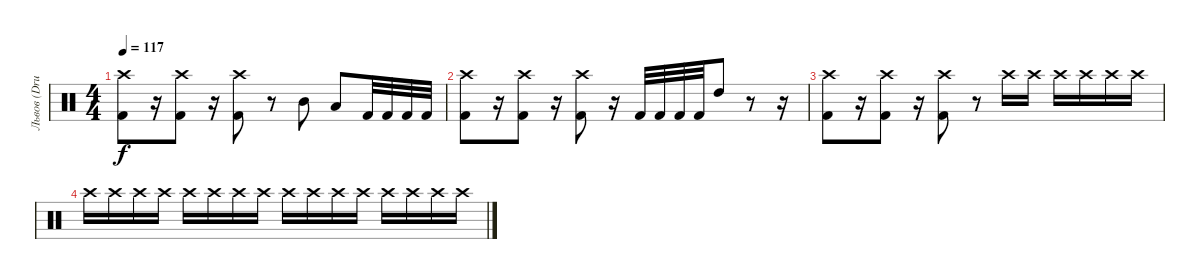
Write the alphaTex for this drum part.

\track ("Львов (Drums)" "Львов (Dru") {instrument percussion}
\staff {score}
\articulation defaults
\ts (4 4)
\tempo 117
\clef neutral
\ks c
("Kick (hit) 2" "Crash high (hit)").8{dy f} r.16 ("Kick (hit) 2" "Crash high (hit)").8 r.16 ("Kick (hit) 2" "Crash high (hit)").8 r.8 "Mid Tom (hit)".8 "Low Tom (hit)".8 "Kick (hit) 2".32 "Kick (hit) 2".32 "Kick (hit) 2".32 "Kick (hit) 2".32 |
("Kick (hit) 2" "Crash high (hit)").8 r.16 ("Kick (hit) 2" "Crash high (hit)").8 r.16 ("Kick (hit) 2" "Crash high (hit)").8 r.16 "Kick (hit) 2".32 "Kick (hit) 2".32 "Kick (hit) 2".32 "Kick (hit) 2".32 "High Tom (hit)".8 r.8 r.16 |
("Kick (hit) 2" "Crash high (hit)").8 r.16 ("Kick (hit) 2" "Crash high (hit)").8 r.16 ("Kick (hit) 2" "Crash high (hit)").8 r.8 "Crash high (hit)".16 "Crash high (hit)".16 "Crash high (hit)".16 "Crash high (hit)".16 "Crash high (hit)".16 "Crash high (hit)".16 |
"Crash high (hit)".16 "Crash high (hit)".16 "Crash high (hit)".16 "Crash high (hit)".16 "Crash high (hit)".16 "Crash high (hit)".16 "Crash high (hit)".16 "Crash high (hit)".16 "Crash high (hit)".16 "Crash high (hit)".16 "Crash high (hit)".16 "Crash high (hit)".16 "Crash high (hit)".16 "Crash high (hit)".16 "Crash high (hit)".16 "Crash high (hit)".16
